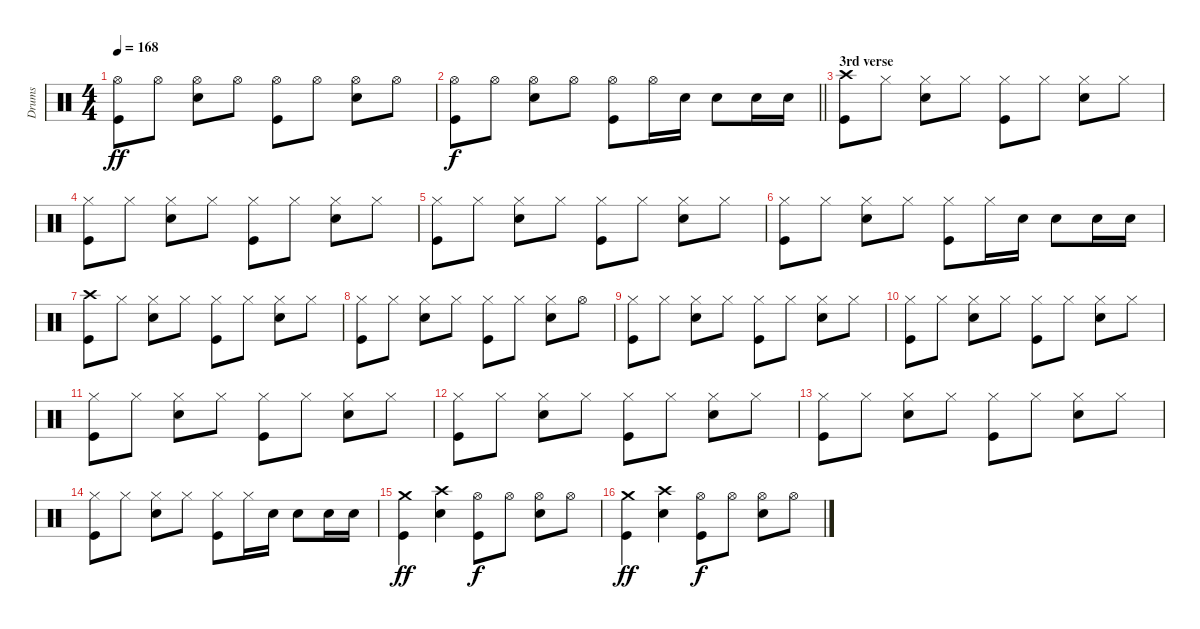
\track ("Drums" "Drums") {instrument percussion}
\staff {score}
\articulation defaults
\ts (4 4)
\tempo 168
\clef neutral
\ks c
("Hi-Hat (open)" "Kick (hit)").8{dy ff} "Hi-Hat (open)".8 ("Hi-Hat (open)" "Snare (hit) 2").8 "Hi-Hat (open)".8 ("Hi-Hat (open)" "Kick (hit)").8 "Hi-Hat (open)".8 ("Hi-Hat (open)" "Snare (hit) 2").8 "Hi-Hat (open)".8 |
\barLineRight lightlight
("Hi-Hat (open)" "Kick (hit)").8{dy f} "Hi-Hat (open)".8 ("Hi-Hat (open)" "Snare (hit) 2").8 "Hi-Hat (open)".8 ("Hi-Hat (open)" "Kick (hit)").8 "Hi-Hat (open)".16 "Snare (hit) 2".16 "Snare (hit) 2".8 "Snare (hit) 2".16 "Snare (hit) 2".16 |
\section ("" "3rd verse")
("Crash high (hit)" "Kick (hit)").8 "Hi-Hat (closed)".8 ("Hi-Hat (closed)" "Snare (hit) 2").8 "Hi-Hat (closed)".8 ("Hi-Hat (closed)" "Kick (hit)").8 "Hi-Hat (closed)".8 ("Hi-Hat (closed)" "Snare (hit) 2").8 "Hi-Hat (closed)".8 |
("Hi-Hat (closed)" "Kick (hit)").8 "Hi-Hat (closed)".8 ("Hi-Hat (closed)" "Snare (hit) 2").8 "Hi-Hat (closed)".8 ("Hi-Hat (closed)" "Kick (hit)").8 "Hi-Hat (closed)".8 ("Hi-Hat (closed)" "Snare (hit) 2").8 "Hi-Hat (closed)".8 |
("Hi-Hat (closed)" "Kick (hit)").8 "Hi-Hat (closed)".8 ("Hi-Hat (closed)" "Snare (hit) 2").8 "Hi-Hat (closed)".8 ("Hi-Hat (closed)" "Kick (hit)").8 "Hi-Hat (closed)".8 ("Hi-Hat (closed)" "Snare (hit) 2").8 "Hi-Hat (closed)".8 |
("Hi-Hat (closed)" "Kick (hit)").8 "Hi-Hat (closed)".8 ("Hi-Hat (closed)" "Snare (hit) 2").8 "Hi-Hat (closed)".8 ("Hi-Hat (closed)" "Kick (hit)").8 "Hi-Hat (closed)".16 "Snare (hit) 2".16 "Snare (hit) 2".8 "Snare (hit) 2".16 "Snare (hit) 2".16 |
("Crash high (hit)" "Kick (hit)").8 "Hi-Hat (closed)".8 ("Hi-Hat (closed)" "Snare (hit) 2").8 "Hi-Hat (closed)".8 ("Hi-Hat (closed)" "Kick (hit)").8 "Hi-Hat (closed)".8 ("Hi-Hat (closed)" "Snare (hit) 2").8 "Hi-Hat (closed)".8 |
("Hi-Hat (closed)" "Kick (hit)").8 "Hi-Hat (closed)".8 ("Hi-Hat (closed)" "Snare (hit) 2").8 "Hi-Hat (closed)".8 ("Hi-Hat (closed)" "Kick (hit)").8 "Hi-Hat (closed)".8 ("Hi-Hat (closed)" "Snare (hit) 2").8 "Hi-Hat (open)".8 |
("Hi-Hat (closed)" "Kick (hit)").8 "Hi-Hat (closed)".8 ("Hi-Hat (closed)" "Snare (hit) 2").8 "Hi-Hat (closed)".8 ("Hi-Hat (closed)" "Kick (hit)").8 "Hi-Hat (closed)".8 ("Hi-Hat (closed)" "Snare (hit) 2").8 "Hi-Hat (closed)".8 |
("Hi-Hat (closed)" "Kick (hit)").8 "Hi-Hat (closed)".8 ("Hi-Hat (closed)" "Snare (hit) 2").8 "Hi-Hat (closed)".8 ("Hi-Hat (closed)" "Kick (hit)").8 "Hi-Hat (closed)".8 ("Hi-Hat (closed)" "Snare (hit) 2").8 "Hi-Hat (closed)".8 |
("Hi-Hat (closed)" "Kick (hit)").8 "Hi-Hat (closed)".8 ("Hi-Hat (closed)" "Snare (hit) 2").8 "Hi-Hat (closed)".8 ("Hi-Hat (closed)" "Kick (hit)").8 "Hi-Hat (closed)".8 ("Hi-Hat (closed)" "Snare (hit) 2").8 "Hi-Hat (closed)".8 |
("Hi-Hat (closed)" "Kick (hit)").8 "Hi-Hat (closed)".8 ("Hi-Hat (closed)" "Snare (hit) 2").8 "Hi-Hat (closed)".8 ("Hi-Hat (closed)" "Kick (hit)").8 "Hi-Hat (closed)".8 ("Hi-Hat (closed)" "Snare (hit) 2").8 "Hi-Hat (closed)".8 |
("Hi-Hat (closed)" "Kick (hit)").8 "Hi-Hat (closed)".8 ("Hi-Hat (closed)" "Snare (hit) 2").8 "Hi-Hat (closed)".8 ("Hi-Hat (closed)" "Kick (hit)").8 "Hi-Hat (closed)".8 ("Hi-Hat (closed)" "Snare (hit) 2").8 "Hi-Hat (closed)".8 |
("Hi-Hat (closed)" "Kick (hit)").8 "Hi-Hat (closed)".8 ("Hi-Hat (closed)" "Snare (hit) 2").8 "Hi-Hat (closed)".8 ("Hi-Hat (closed)" "Kick (hit)").8 "Hi-Hat (closed)".16 "Snare (hit) 2".16 "Snare (hit) 2".8 "Snare (hit) 2".16 "Snare (hit) 2".16 |
("Crash medium (hit)" "Kick (hit)").4{dy ff} ("Crash high (hit)" "Snare (hit) 2").4 ("Hi-Hat (open)" "Kick (hit)").8{dy f} "Hi-Hat (open)".8 ("Hi-Hat (open)" "Snare (hit) 2").8 "Hi-Hat (open)".8 |
("Crash medium (hit)" "Kick (hit)").4{dy ff} ("Crash high (hit)" "Snare (hit) 2").4 ("Hi-Hat (open)" "Kick (hit)").8{dy f} "Hi-Hat (open)".8 ("Hi-Hat (open)" "Snare (hit) 2").8 "Hi-Hat (open)".8
